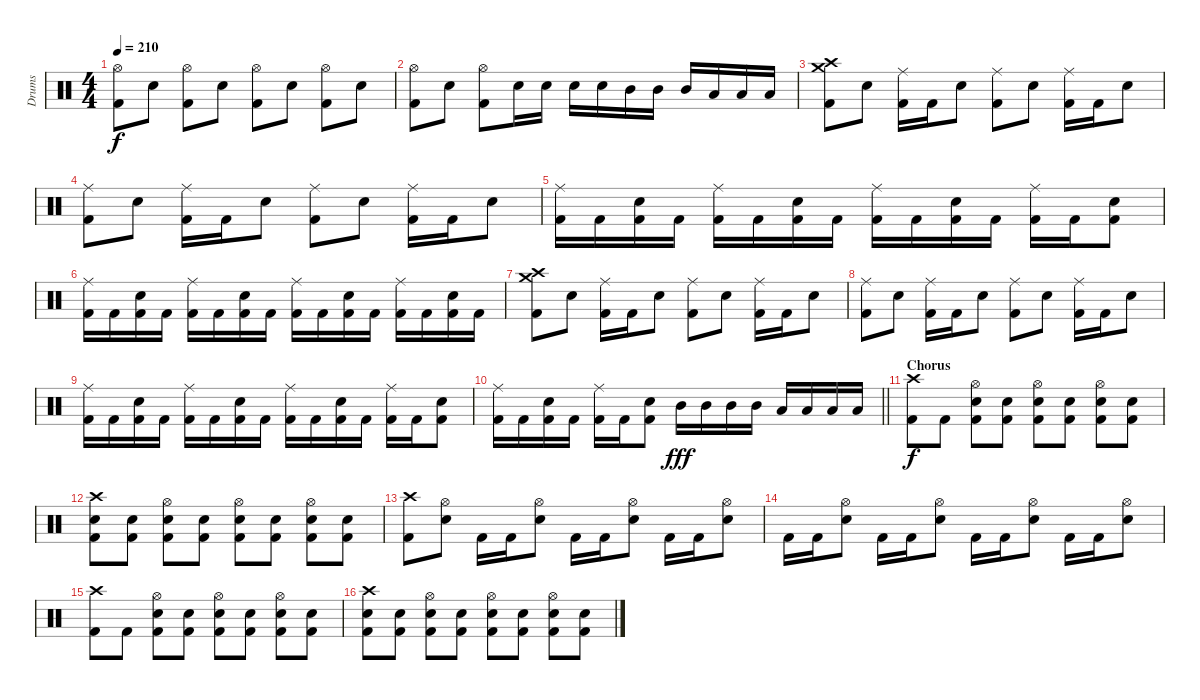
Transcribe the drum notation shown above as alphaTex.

\track ("Drums" "Drums") {instrument percussion}
\staff {score}
\articulation defaults
\ts (4 4)
\tempo 210
\clef neutral
\ks c
("Hi-Hat (open)" "Kick (hit) 2").8{dy f} "Snare (hit) 2".8 ("Hi-Hat (open)" "Kick (hit) 2").8 "Snare (hit) 2".8 ("Hi-Hat (open)" "Kick (hit) 2").8 "Snare (hit) 2".8 ("Hi-Hat (open)" "Kick (hit) 2").8 "Snare (hit) 2".8 |
("Hi-Hat (open)" "Kick (hit) 2").8 "Snare (hit) 2".8 ("Hi-Hat (open)" "Kick (hit) 2").8 "Snare (hit) 2".16 "Snare (hit) 2".16 "Snare (hit) 2".16 "Snare (hit) 2".16 "Mid Tom (hit)".16 "Mid Tom (hit)".16 "Mid Tom (hit)".16 "Low Tom (hit)".16 "Low Tom (hit)".16 "Low Tom (hit)".16 |
("Crash high (hit)" "Crash medium (hit)" "Kick (hit) 2").8 "Snare (hit) 2".8 ("Ride (middle)" "Kick (hit) 2").16 "Kick (hit) 2".16 "Snare (hit) 2".8 ("Ride (middle)" "Kick (hit) 2").8 "Snare (hit) 2".8 ("Ride (middle)" "Kick (hit) 2").16 "Kick (hit) 2".16 "Snare (hit) 2".8 |
("Ride (middle)" "Kick (hit) 2").8 "Snare (hit) 2".8 ("Ride (middle)" "Kick (hit) 2").16 "Kick (hit) 2".16 "Snare (hit) 2".8 ("Ride (middle)" "Kick (hit) 2").8 "Snare (hit) 2".8 ("Ride (middle)" "Kick (hit) 2").16 "Kick (hit) 2".16 "Snare (hit) 2".8 |
("Ride (middle)" "Kick (hit) 2").16 "Kick (hit) 2".16 ("Snare (hit) 2" "Kick (hit) 2").16 "Kick (hit) 2".16 ("Ride (middle)" "Kick (hit) 2").16 "Kick (hit) 2".16 ("Snare (hit) 2" "Kick (hit) 2").16 "Kick (hit) 2".16 ("Ride (middle)" "Kick (hit) 2").16 "Kick (hit) 2".16 ("Snare (hit) 2" "Kick (hit) 2").16 "Kick (hit) 2".16 ("Ride (middle)" "Kick (hit) 2").16 "Kick (hit) 2".16 ("Snare (hit) 2" "Kick (hit) 2").8 |
("Ride (middle)" "Kick (hit) 2").16 "Kick (hit) 2".16 ("Snare (hit) 2" "Kick (hit) 2").16 "Kick (hit) 2".16 ("Ride (middle)" "Kick (hit) 2").16 "Kick (hit) 2".16 ("Snare (hit) 2" "Kick (hit) 2").16 "Kick (hit) 2".16 ("Ride (middle)" "Kick (hit) 2").16 "Kick (hit) 2".16 ("Snare (hit) 2" "Kick (hit) 2").16 "Kick (hit) 2".16 ("Ride (middle)" "Kick (hit) 2").16 "Kick (hit) 2".16 ("Snare (hit) 2" "Kick (hit) 2").16 "Kick (hit) 2".16 |
("Crash medium (hit)" "Crash high (hit)" "Kick (hit) 2").8 "Snare (hit) 2".8 ("Ride (middle)" "Kick (hit) 2").16 "Kick (hit) 2".16 "Snare (hit) 2".8 ("Ride (middle)" "Kick (hit) 2").8 "Snare (hit) 2".8 ("Ride (middle)" "Kick (hit) 2").16 "Kick (hit) 2".16 "Snare (hit) 2".8 |
("Ride (middle)" "Kick (hit) 2").8 "Snare (hit) 2".8 ("Ride (middle)" "Kick (hit) 2").16 "Kick (hit) 2".16 "Snare (hit) 2".8 ("Ride (middle)" "Kick (hit) 2").8 "Snare (hit) 2".8 ("Ride (middle)" "Kick (hit) 2").16 "Kick (hit) 2".16 "Snare (hit) 2".8 |
("Ride (middle)" "Kick (hit) 2").16 "Kick (hit) 2".16 ("Snare (hit) 2" "Kick (hit) 2").16 "Kick (hit) 2".16 ("Ride (middle)" "Kick (hit) 2").16 "Kick (hit) 2".16 ("Snare (hit) 2" "Kick (hit) 2").16 "Kick (hit) 2".16 ("Ride (middle)" "Kick (hit) 2").16 "Kick (hit) 2".16 ("Snare (hit) 2" "Kick (hit) 2").16 "Kick (hit) 2".16 ("Ride (middle)" "Kick (hit) 2").16 "Kick (hit) 2".16 ("Snare (hit) 2" "Kick (hit) 2").8 |
\barLineRight lightlight
("Ride (middle)" "Kick (hit) 2").16 "Kick (hit) 2".16 ("Snare (hit) 2" "Kick (hit) 2").16 "Kick (hit) 2".16 ("Ride (middle)" "Kick (hit) 2").16 "Kick (hit) 2".16 ("Snare (hit) 2" "Kick (hit) 2").8 "Mid Tom (hit)".16{dy fff} "Mid Tom (hit)".16 "Mid Tom (hit)".16 "Mid Tom (hit)".16 "Low Tom (hit)".16 "Low Tom (hit)".16 "Low Tom (hit)".16 "Low Tom (hit)".16 |
\section ("" "Chorus")
("Crash high (hit)" "Kick (hit) 2").8{dy f} "Kick (hit) 2".8 ("Hi-Hat (open)" "Snare (hit) 2" "Kick (hit) 2").8 ("Snare (hit) 2" "Kick (hit) 2").8 ("Hi-Hat (open)" "Snare (hit) 2" "Kick (hit) 2").8 ("Snare (hit) 2" "Kick (hit) 2").8 ("Hi-Hat (open)" "Snare (hit) 2" "Kick (hit) 2").8 ("Snare (hit) 2" "Kick (hit) 2").8 |
("Crash high (hit)" "Snare (hit) 2" "Kick (hit) 2").8 ("Snare (hit) 2" "Kick (hit) 2").8 ("Hi-Hat (open)" "Snare (hit) 2" "Kick (hit) 2").8 ("Snare (hit) 2" "Kick (hit) 2").8 ("Hi-Hat (open)" "Snare (hit) 2" "Kick (hit) 2").8 ("Snare (hit) 2" "Kick (hit) 2").8 ("Hi-Hat (open)" "Snare (hit) 2" "Kick (hit) 2").8 ("Snare (hit) 2" "Kick (hit) 2").8 |
("Crash high (hit)" "Kick (hit) 2").8 ("Hi-Hat (open)" "Snare (hit) 2").8 "Kick (hit) 2".16 "Kick (hit) 2".16 ("Hi-Hat (open)" "Snare (hit) 2").8 "Kick (hit) 2".16 "Kick (hit) 2".16 ("Hi-Hat (open)" "Snare (hit) 2").8 "Kick (hit) 2".16 "Kick (hit) 2".16 ("Hi-Hat (open)" "Snare (hit) 2").8 |
"Kick (hit) 2".16 "Kick (hit) 2".16 ("Hi-Hat (open)" "Snare (hit) 2").8 "Kick (hit) 2".16 "Kick (hit) 2".16 ("Hi-Hat (open)" "Snare (hit) 2").8 "Kick (hit) 2".16 "Kick (hit) 2".16 ("Hi-Hat (open)" "Snare (hit) 2").8 "Kick (hit) 2".16 "Kick (hit) 2".16 ("Hi-Hat (open)" "Snare (hit) 2").8 |
("Crash high (hit)" "Kick (hit) 2").8 "Kick (hit) 2".8 ("Hi-Hat (open)" "Snare (hit) 2" "Kick (hit) 2").8 ("Snare (hit) 2" "Kick (hit) 2").8 ("Hi-Hat (open)" "Snare (hit) 2" "Kick (hit) 2").8 ("Snare (hit) 2" "Kick (hit) 2").8 ("Hi-Hat (open)" "Snare (hit) 2" "Kick (hit) 2").8 ("Snare (hit) 2" "Kick (hit) 2").8 |
("Crash high (hit)" "Snare (hit) 2" "Kick (hit) 2").8 ("Snare (hit) 2" "Kick (hit) 2").8 ("Hi-Hat (open)" "Snare (hit) 2" "Kick (hit) 2").8 ("Snare (hit) 2" "Kick (hit) 2").8 ("Hi-Hat (open)" "Snare (hit) 2" "Kick (hit) 2").8 ("Snare (hit) 2" "Kick (hit) 2").8 ("Hi-Hat (open)" "Snare (hit) 2" "Kick (hit) 2").8 ("Snare (hit) 2" "Kick (hit) 2").8
